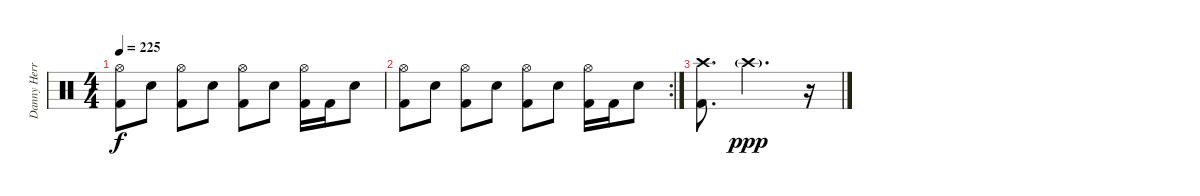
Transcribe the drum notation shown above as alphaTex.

\track ("Danny Herrera - Drums" "Danny Herr") {instrument percussion}
\staff {score}
\articulation defaults
\ts (4 4)
\tempo 225
\clef neutral
\ks c
("Hi-Hat (open)" "Kick (hit) 2").8{dy f} "Electric Snare (hit)".8 ("Hi-Hat (open)" "Kick (hit) 2").8 "Electric Snare (hit)".8 ("Hi-Hat (open)" "Kick (hit) 2").8 "Electric Snare (hit)".8 ("Hi-Hat (open)" "Kick (hit) 2").16 "Kick (hit) 2".16 "Electric Snare (hit)".8 |
\rc 2
("Hi-Hat (open)" "Kick (hit) 2").8 "Electric Snare (hit)".8 ("Hi-Hat (open)" "Kick (hit) 2").8 "Electric Snare (hit)".8 ("Hi-Hat (open)" "Kick (hit) 2").8 "Electric Snare (hit)".8 ("Hi-Hat (open)" "Kick (hit) 2").16 "Kick (hit) 2".16 "Electric Snare (hit)".8 |
("Crash high (hit)" "Kick (hit) 2").8{d} "Crash high (hit)"{g}.2{d dy ppp} r.16
